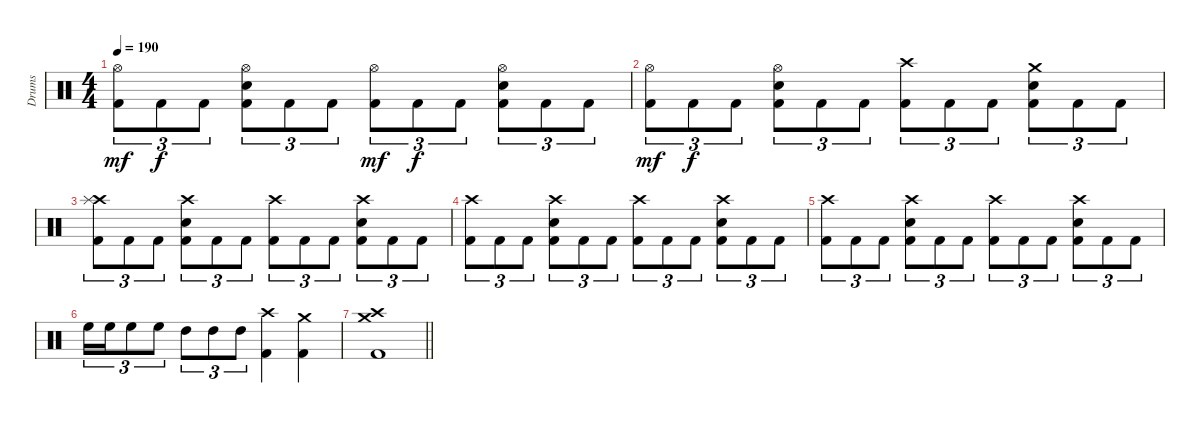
\track ("Drums" "Drums") {instrument percussion}
\staff {score}
\articulation defaults
\ts (4 4)
\tempo 190
\clef neutral
\ks c
("Hi-Hat (open)" "Kick (hit) 2").8{tu (3 2) dy mf} "Kick (hit) 2".8{tu (3 2) dy f} "Kick (hit) 2".8{tu (3 2)} ("Hi-Hat (open)" "Electric Snare (hit)" "Kick (hit) 2").8{tu (3 2)} "Kick (hit) 2".8{tu (3 2)} "Kick (hit) 2".8{tu (3 2)} ("Hi-Hat (open)" "Kick (hit) 2").8{tu (3 2) dy mf} "Kick (hit) 2".8{tu (3 2) dy f} "Kick (hit) 2".8{tu (3 2)} ("Hi-Hat (open)" "Electric Snare (hit)" "Kick (hit) 2").8{tu (3 2)} "Kick (hit) 2".8{tu (3 2)} "Kick (hit) 2".8{tu (3 2)} |
("Hi-Hat (open)" "Kick (hit) 2").8{tu (3 2) dy mf} "Kick (hit) 2".8{tu (3 2) dy f} "Kick (hit) 2".8{tu (3 2)} ("Hi-Hat (open)" "Electric Snare (hit)" "Kick (hit) 2").8{tu (3 2)} "Kick (hit) 2".8{tu (3 2)} "Kick (hit) 2".8{tu (3 2)} ("Crash high (hit)" "Kick (hit) 2").8{tu (3 2)} "Kick (hit) 2".8{tu (3 2)} "Kick (hit) 2".8{tu (3 2)} ("Crash medium (hit)" "Electric Snare (hit)" "Kick (hit) 2").8{tu (3 2)} "Kick (hit) 2".8{tu (3 2)} "Kick (hit) 2".8{tu (3 2)} |
("Crash high (hit)" "Splash (hit)" "Kick (hit) 2").8{tu (3 2)} "Kick (hit) 2".8{tu (3 2)} "Kick (hit) 2".8{tu (3 2)} ("Crash high (hit)" "Electric Snare (hit)" "Kick (hit) 2").8{tu (3 2)} "Kick (hit) 2".8{tu (3 2)} "Kick (hit) 2".8{tu (3 2)} ("Crash high (hit)" "Kick (hit) 2").8{tu (3 2)} "Kick (hit) 2".8{tu (3 2)} "Kick (hit) 2".8{tu (3 2)} ("Crash high (hit)" "Electric Snare (hit)" "Kick (hit) 2").8{tu (3 2)} "Kick (hit) 2".8{tu (3 2)} "Kick (hit) 2".8{tu (3 2)} |
("Crash high (hit)" "Kick (hit) 2").8{tu (3 2)} "Kick (hit) 2".8{tu (3 2)} "Kick (hit) 2".8{tu (3 2)} ("Crash high (hit)" "Electric Snare (hit)" "Kick (hit) 2").8{tu (3 2)} "Kick (hit) 2".8{tu (3 2)} "Kick (hit) 2".8{tu (3 2)} ("Crash high (hit)" "Kick (hit) 2").8{tu (3 2)} "Kick (hit) 2".8{tu (3 2)} "Kick (hit) 2".8{tu (3 2)} ("Crash high (hit)" "Electric Snare (hit)" "Kick (hit) 2").8{tu (3 2)} "Kick (hit) 2".8{tu (3 2)} "Kick (hit) 2".8{tu (3 2)} |
("Crash high (hit)" "Kick (hit) 2").8{tu (3 2)} "Kick (hit) 2".8{tu (3 2)} "Kick (hit) 2".8{tu (3 2)} ("Crash high (hit)" "Electric Snare (hit)" "Kick (hit) 2").8{tu (3 2)} "Kick (hit) 2".8{tu (3 2)} "Kick (hit) 2".8{tu (3 2)} ("Crash high (hit)" "Kick (hit) 2").8{tu (3 2)} "Kick (hit) 2".8{tu (3 2)} "Kick (hit) 2".8{tu (3 2)} ("Crash high (hit)" "Electric Snare (hit)" "Kick (hit) 2").8{tu (3 2)} "Kick (hit) 2".8{tu (3 2)} "Kick (hit) 2".8{tu (3 2)} |
"High Floor Tom (hit)".16{tu (3 2)} "High Floor Tom (hit)".16{tu (3 2)} "High Floor Tom (hit)".8{tu (3 2)} "High Floor Tom (hit)".8{tu (3 2)} "High Tom (hit)".8{tu (3 2)} "High Tom (hit)".8{tu (3 2)} "High Tom (hit)".8{tu (3 2)} ("Crash high (hit)" "Kick (hit) 2").4 ("Crash medium (hit)" "Kick (hit) 2").4 |
\barLineRight lightlight
("Crash high (hit)" "Crash medium (hit)" "Kick (hit) 2").1
